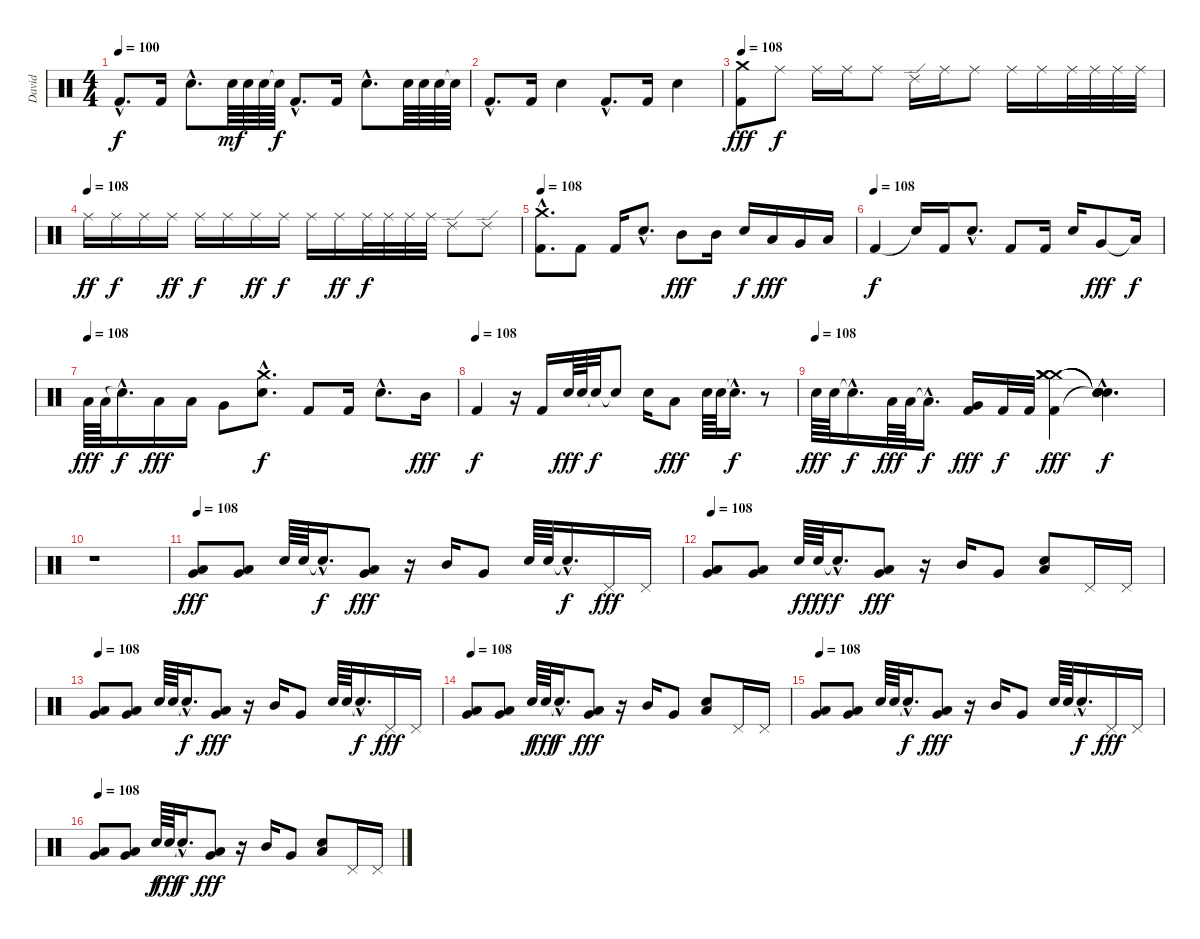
\track ("David" "David") {instrument percussion}
\staff {score}
\articulation defaults
\ts (4 4)
\tempo 100
\clef neutral
\ks c "Kick (hit) 2"{hac}.8{d dy f} "Kick (hit) 2".16 "Snare (hit) 2"{hac}.8{d} "Snare (hit) 2".64{dy mf} "Snare (hit) 2".64 "Snare (hit) 2".64 "Snare (hit)"{t}.64{dy f} "Kick (hit) 2"{hac}.8{d} "Kick (hit) 2".16 "Snare (hit) 2"{hac}.8{d} "Snare (hit) 2".64 "Snare (hit) 2".64 "Snare (hit) 2".64 "Snare (hit)"{t}.64
|
"Kick (hit) 2"{hac}.8{d} "Kick (hit) 2".16 "Snare (hit) 2".4 "Kick (hit) 2"{hac}.8{d} "Kick (hit) 2".16 "Snare (hit) 2".4 |
\tempo 108
("Kick (hit) 2" "Crash medium (hit)").8{dy fff} "Ride (middle)".8{dy f} "Ride (middle)".16 "Ride (middle)".16 "Ride (middle)".8 "Ride (edge) 2".16 "Ride (middle)".16 "Ride (middle)".8 "Ride (middle)".16 "Ride (middle)".16 "Ride (middle)".32 "Ride (middle)".32 "Ride (middle)".32 "Ride (middle)".32 |
\tempo (108)
"Ride (middle)".16{dy ff} "Ride (middle)".16{dy f} "Ride (middle)".16 "Ride (middle)".16{dy ff} "Ride (middle)".16{dy f} "Ride (middle)".16 "Ride (middle)".16{dy ff} "Ride (middle)".16{dy f} "Ride (middle)".16 "Ride (middle)".16{dy ff} "Ride (middle)".32{dy f} "Ride (middle)".32 "Ride (middle)".32 "Ride (middle)".32 "Ride (edge) 2".8 "Ride (edge) 2".8 |
\tempo 108
("Crash medium (hit)"{hac} "Kick (hit) 2"{hac}).8{d} "Kick (hit) 2".8 "Kick (hit) 2".16 "Snare (hit) 2"{hac}.8{d} "Mid Tom (hit)".8{dy fff} "Mid Tom (hit)".16 "Snare (hit) 2".16{dy f} "Low Tom (hit)".16{dy fff} "Very Low Tom (hit)".16 "Low Floor Tom (hit)".16 |
\tempo (108)
"Kick (hit) 2".4{dy f} "Snare (hit)"{t}.16 "Kick (hit) 2".16 "Snare (hit) 2"{hac}.8{d} "Kick (hit) 2".8 "Kick (hit) 2".16 "Snare (hit) 2".16 "Very Low Tom (hit)".8{dy fff} "Low Floor Tom (hit)"{t}.16{dy f} |
\tempo (108)
"Low Floor Tom (hit)".64{dy fff} "Low Floor Tom (hit)".64 "Snare (hit)"{hac t}.16{d dy f} "Low Tom (hit)".16{dy fff} "Low Tom (hit)".16 "Very Low Tom (hit)".8 ("Crash medium (hit)"{hac} "Snare (hit) 2"{hac}).8{d dy f} "Kick (hit) 2".8 "Kick (hit) 2".16 "Snare (hit) 2"{hac}.8{d} "Mid Tom (hit)".16{dy fff} |
\tempo (108)
"Kick (hit) 2".4{dy f} r.16 "Kick (hit) 2".16 "Snare (hit) 2".64{dy fff} "Snare (hit) 2".64 "Snare (hit)"{t}.32{dy f} "Snare (hit) 2"{t}.8 "Snare (hit) 2".16 "Low Tom (hit)".8{dy fff} "Snare (hit) 2".64 "Snare (hit) 2".64 "Snare (hit)"{hac t}.16{d dy f} r.8 |
\tempo (108)
"Snare (hit) 2".64{dy fff} "Snare (hit) 2".64 "Snare (hit) 2"{hac t}.16{d dy f} "Low Tom (hit)".64{dy fff} "Low Tom (hit)".64 "Low Tom (hit)"{hac t}.16{d dy f} ("Very Low Tom (hit)" "Kick (hit) 2").16{dy fff} "Kick (hit) 2".32{dy f} "Kick (hit) 2".32 ("Crash medium (hit)" "Crash medium (hit)" "Kick (hit) 2" "Crash medium (hit)" "Crash medium (hit)" "Crash medium (hit)").4{dy fff} ("Snare (hit)"{hac t} "Snare (hit)"{hac t} "Snare (hit)"{hac t} "Snare (hit)"{hac t} "Snare (hit)"{hac t} "Snare (hit)"{hac t}).4{d dy f} |
r.1 |
\tempo 108
("Low Tom (hit)" "Very Low Tom (hit)").8{dy fff} ("Low Tom (hit)" "Very Low Tom (hit)").8 "Snare (hit) 2".64 "Snare (hit) 2".64 "Snare (hit)"{hac t}.16{d dy f} ("Low Tom (hit)" "Very Low Tom (hit)").8{dy fff} r.16 "Mid Tom (hit)".16 "Very Low Tom (hit)".8 "Snare (hit) 2".64 "Snare (hit) 2".64 "Snare (hit) 2"{hac t}.16{d dy f} "Pedal Hi-Hat (hit)".16{dy fff} "Pedal Hi-Hat (hit)".16 |
\tempo 108
("Low Tom (hit)" "Very Low Tom (hit)").8 ("Low Tom (hit)" "Very Low Tom (hit)").8 "Snare (hit) 2".64{dy f} "Snare (hit) 2".64{dy fff} "Snare (hit)"{hac t}.16{d dy f} ("Low Tom (hit)" "Very Low Tom (hit)").8{dy fff} r.16 "Mid Tom (hit)".16 "Very Low Tom (hit)".8 ("Snare (hit) 2" "Low Floor Tom (hit)").8 "Pedal Hi-Hat (hit)".16 "Pedal Hi-Hat (hit)".16 |
\tempo 108
("Low Tom (hit)" "Very Low Tom (hit)").8 ("Low Tom (hit)" "Very Low Tom (hit)").8 "Snare (hit) 2".64 "Snare (hit) 2".64 "Snare (hit)"{hac t}.16{d dy f} ("Low Tom (hit)" "Very Low Tom (hit)").8{dy fff} r.16 "Mid Tom (hit)".16 "Very Low Tom (hit)".8 "Snare (hit) 2".64 "Snare (hit) 2".64 "Snare (hit) 2"{hac t}.16{d dy f} "Pedal Hi-Hat (hit)".16{dy fff} "Pedal Hi-Hat (hit)".16 |
\tempo 108
("Low Tom (hit)" "Very Low Tom (hit)").8 ("Low Tom (hit)" "Very Low Tom (hit)").8 "Snare (hit) 2".64{dy f} "Snare (hit) 2".64{dy fff} "Snare (hit)"{hac t}.16{d dy f} ("Low Tom (hit)" "Very Low Tom (hit)").8{dy fff} r.16 "Mid Tom (hit)".16 "Very Low Tom (hit)".8 ("Snare (hit) 2" "Low Floor Tom (hit)").8 "Pedal Hi-Hat (hit)".16 "Pedal Hi-Hat (hit)".16 |
\tempo 108
("Low Tom (hit)" "Very Low Tom (hit)").8 ("Low Tom (hit)" "Very Low Tom (hit)").8 "Snare (hit) 2".64 "Snare (hit) 2".64 "Snare (hit)"{hac t}.16{d dy f} ("Low Tom (hit)" "Very Low Tom (hit)").8{dy fff} r.16 "Mid Tom (hit)".16 "Very Low Tom (hit)".8 "Snare (hit) 2".64 "Snare (hit) 2".64 "Snare (hit) 2"{hac t}.16{d dy f} "Pedal Hi-Hat (hit)".16{dy fff} "Pedal Hi-Hat (hit)".16 |
\tempo 108
("Low Tom (hit)" "Very Low Tom (hit)").8 ("Low Tom (hit)" "Very Low Tom (hit)").8 "Snare (hit) 2".64{dy f} "Snare (hit) 2".64{dy fff} "Snare (hit)"{hac t}.16{d dy f} ("Low Tom (hit)" "Very Low Tom (hit)").8{dy fff} r.16 "Mid Tom (hit)".16 "Very Low Tom (hit)".8 ("Snare (hit) 2" "Low Floor Tom (hit)").8 "Pedal Hi-Hat (hit)".16 "Pedal Hi-Hat (hit)".16
